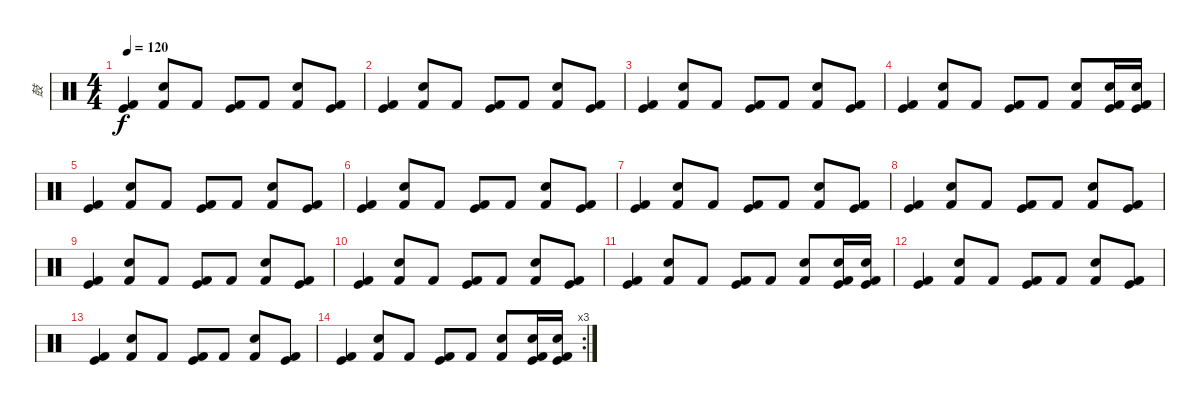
\track ("鼓" "鼓") {instrument percussion}
\staff {score}
\articulation defaults
\ts (4 4)
\tempo 120
\clef neutral
\ks c
("Kick (hit) 2" "Kick (hit)").4{dy f} ("Kick (hit) 2" "Electric Snare (hit)").8 "Kick (hit) 2".8 ("Kick (hit) 2" "Kick (hit)").8 "Kick (hit) 2".8 ("Kick (hit) 2" "Electric Snare (hit)").8 ("Kick (hit) 2" "Kick (hit)").8 |
("Kick (hit) 2" "Kick (hit)").4 ("Kick (hit) 2" "Electric Snare (hit)").8 "Kick (hit) 2".8 ("Kick (hit) 2" "Kick (hit)").8 "Kick (hit) 2".8 ("Kick (hit) 2" "Electric Snare (hit)").8 ("Kick (hit) 2" "Kick (hit)").8 |
("Kick (hit) 2" "Kick (hit)").4 ("Kick (hit) 2" "Electric Snare (hit)").8 "Kick (hit) 2".8 ("Kick (hit) 2" "Kick (hit)").8 "Kick (hit) 2".8 ("Kick (hit) 2" "Electric Snare (hit)").8 ("Kick (hit) 2" "Kick (hit)").8 |
("Kick (hit) 2" "Kick (hit)").4 ("Kick (hit) 2" "Electric Snare (hit)").8 "Kick (hit) 2".8 ("Kick (hit) 2" "Kick (hit)").8 "Kick (hit) 2".8 ("Kick (hit) 2" "Electric Snare (hit)").8 ("Kick (hit) 2" "Kick (hit)" "Electric Snare (hit)").16 ("Kick (hit) 2" "Kick (hit)" "Electric Snare (hit)").16 |
("Kick (hit) 2" "Kick (hit)").4 ("Kick (hit) 2" "Electric Snare (hit)").8 "Kick (hit) 2".8 ("Kick (hit) 2" "Kick (hit)").8 "Kick (hit) 2".8 ("Kick (hit) 2" "Electric Snare (hit)").8 ("Kick (hit) 2" "Kick (hit)").8 |
("Kick (hit) 2" "Kick (hit)").4 ("Kick (hit) 2" "Electric Snare (hit)").8 "Kick (hit) 2".8 ("Kick (hit) 2" "Kick (hit)").8 "Kick (hit) 2".8 ("Kick (hit) 2" "Electric Snare (hit)").8 ("Kick (hit) 2" "Kick (hit)").8 |
("Kick (hit) 2" "Kick (hit)").4 ("Kick (hit) 2" "Electric Snare (hit)").8 "Kick (hit) 2".8 ("Kick (hit) 2" "Kick (hit)").8 "Kick (hit) 2".8 ("Kick (hit) 2" "Electric Snare (hit)").8 ("Kick (hit) 2" "Kick (hit)").8 |
("Kick (hit) 2" "Kick (hit)").4 ("Kick (hit) 2" "Electric Snare (hit)").8 "Kick (hit) 2".8 ("Kick (hit) 2" "Kick (hit)").8 "Kick (hit) 2".8 ("Kick (hit) 2" "Electric Snare (hit)").8 ("Kick (hit) 2" "Kick (hit)").8 |
("Kick (hit) 2" "Kick (hit)").4 ("Kick (hit) 2" "Electric Snare (hit)").8 "Kick (hit) 2".8 ("Kick (hit) 2" "Kick (hit)").8 "Kick (hit) 2".8 ("Kick (hit) 2" "Electric Snare (hit)").8 ("Kick (hit) 2" "Kick (hit)").8 |
("Kick (hit) 2" "Kick (hit)").4 ("Kick (hit) 2" "Electric Snare (hit)").8 "Kick (hit) 2".8 ("Kick (hit) 2" "Kick (hit)").8 "Kick (hit) 2".8 ("Kick (hit) 2" "Electric Snare (hit)").8 ("Kick (hit) 2" "Kick (hit)").8 |
("Kick (hit) 2" "Kick (hit)").4 ("Kick (hit) 2" "Electric Snare (hit)").8 "Kick (hit) 2".8 ("Kick (hit) 2" "Kick (hit)").8 "Kick (hit) 2".8 ("Kick (hit) 2" "Electric Snare (hit)").8 ("Kick (hit) 2" "Kick (hit)" "Electric Snare (hit)").16 ("Kick (hit) 2" "Kick (hit)" "Electric Snare (hit)").16 |
("Kick (hit) 2" "Kick (hit)").4 ("Kick (hit) 2" "Electric Snare (hit)").8 "Kick (hit) 2".8 ("Kick (hit) 2" "Kick (hit)").8 "Kick (hit) 2".8 ("Kick (hit) 2" "Electric Snare (hit)").8 ("Kick (hit) 2" "Kick (hit)").8 |
("Kick (hit) 2" "Kick (hit)").4 ("Kick (hit) 2" "Electric Snare (hit)").8 "Kick (hit) 2".8 ("Kick (hit) 2" "Kick (hit)").8 "Kick (hit) 2".8 ("Kick (hit) 2" "Electric Snare (hit)").8 ("Kick (hit) 2" "Kick (hit)").8 |
\rc 3
("Kick (hit) 2" "Kick (hit)").4 ("Kick (hit) 2" "Electric Snare (hit)").8 "Kick (hit) 2".8 ("Kick (hit) 2" "Kick (hit)").8 "Kick (hit) 2".8 ("Kick (hit) 2" "Electric Snare (hit)").8 ("Kick (hit) 2" "Kick (hit)" "Electric Snare (hit)").16 ("Kick (hit) 2" "Kick (hit)" "Electric Snare (hit)").16
